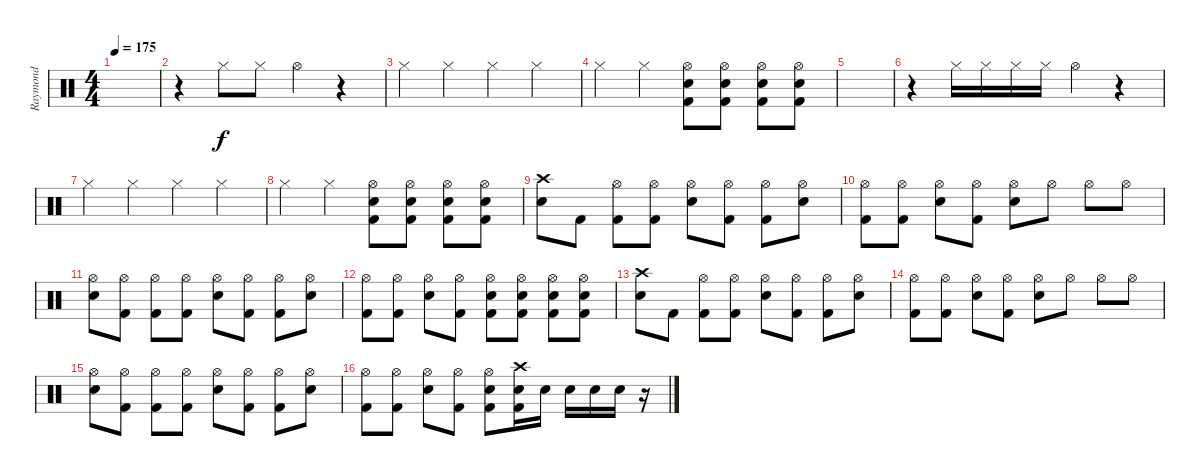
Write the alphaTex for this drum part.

\track ("Raymond" "Raymond") {instrument percussion}
\staff {score}
\articulation defaults
\ts (4 4)
\tempo 175
\clef neutral
\ks c
|
r.4 "Hi-Hat (closed)".8 "Hi-Hat (closed)".8 "Hi-Hat (open)".4 r.4 |
"Hi-Hat (closed)".4 "Hi-Hat (closed)".4 "Hi-Hat (closed)".4 "Hi-Hat (closed)".4 |
"Hi-Hat (closed)".4 "Hi-Hat (closed)".4 ("Hi-Hat (open)" "Electric Snare (hit)" "Kick (hit) 2").8 ("Hi-Hat (open)" "Electric Snare (hit)" "Kick (hit) 2").8 ("Hi-Hat (open)" "Electric Snare (hit)" "Kick (hit) 2").8 ("Hi-Hat (open)" "Electric Snare (hit)" "Kick (hit) 2").8 |
|
r.4 "Hi-Hat (closed)".16 "Hi-Hat (closed)".16 "Hi-Hat (closed)".16 "Hi-Hat (closed)".16 "Hi-Hat (open)".4 r.4 |
"Hi-Hat (closed)".4 "Hi-Hat (closed)".4 "Hi-Hat (closed)".4 "Hi-Hat (closed)".4 |
"Hi-Hat (closed)".4 "Hi-Hat (closed)".4 ("Hi-Hat (open)" "Electric Snare (hit)" "Kick (hit) 2").8 ("Hi-Hat (open)" "Electric Snare (hit)" "Kick (hit) 2").8 ("Hi-Hat (open)" "Electric Snare (hit)" "Kick (hit) 2").8 ("Hi-Hat (open)" "Electric Snare (hit)" "Kick (hit) 2").8 |
("Crash high (hit)" "Electric Snare (hit)").8 "Kick (hit) 2".8 ("Hi-Hat (open)" "Kick (hit) 2").8 ("Hi-Hat (open)" "Kick (hit) 2").8 ("Hi-Hat (open)" "Electric Snare (hit)").8 ("Hi-Hat (open)" "Kick (hit) 2").8 ("Hi-Hat (open)" "Kick (hit) 2").8 ("Hi-Hat (open)" "Electric Snare (hit)").8 |
("Hi-Hat (open)" "Kick (hit) 2").8 ("Hi-Hat (open)" "Kick (hit) 2").8 ("Hi-Hat (open)" "Electric Snare (hit)").8 ("Hi-Hat (open)" "Kick (hit) 2").8 ("Hi-Hat (open)" "Electric Snare (hit)").8 "Hi-Hat (open)".8 "Hi-Hat (open)".8 "Hi-Hat (open)".8 |
("Hi-Hat (open)" "Electric Snare (hit)").8 ("Hi-Hat (open)" "Kick (hit) 2").8 ("Hi-Hat (open)" "Kick (hit) 2").8 ("Hi-Hat (open)" "Kick (hit) 2").8 ("Hi-Hat (open)" "Electric Snare (hit)").8 ("Hi-Hat (open)" "Kick (hit) 2").8 ("Hi-Hat (open)" "Kick (hit) 2").8 ("Hi-Hat (open)" "Electric Snare (hit)").8 |
("Hi-Hat (open)" "Kick (hit) 2").8 ("Hi-Hat (open)" "Kick (hit) 2").8 ("Hi-Hat (open)" "Electric Snare (hit)").8 ("Hi-Hat (open)" "Kick (hit) 2").8 ("Hi-Hat (open)" "Electric Snare (hit)" "Kick (hit) 2").8 ("Hi-Hat (open)" "Electric Snare (hit)" "Kick (hit) 2").8 ("Hi-Hat (open)" "Electric Snare (hit)" "Kick (hit) 2").8 ("Hi-Hat (open)" "Electric Snare (hit)" "Kick (hit) 2").8 |
("Crash high (hit)" "Electric Snare (hit)").8 "Kick (hit) 2".8 ("Hi-Hat (open)" "Kick (hit) 2").8 ("Hi-Hat (open)" "Kick (hit) 2").8 ("Hi-Hat (open)" "Electric Snare (hit)").8 ("Hi-Hat (open)" "Kick (hit) 2").8 ("Hi-Hat (open)" "Kick (hit) 2").8 ("Hi-Hat (open)" "Electric Snare (hit)").8 |
("Hi-Hat (open)" "Kick (hit) 2").8 ("Hi-Hat (open)" "Kick (hit) 2").8 ("Hi-Hat (open)" "Electric Snare (hit)").8 ("Hi-Hat (open)" "Kick (hit) 2").8 ("Hi-Hat (open)" "Electric Snare (hit)").8 "Hi-Hat (open)".8 "Hi-Hat (open)".8 "Hi-Hat (open)".8 |
("Hi-Hat (open)" "Electric Snare (hit)").8 ("Hi-Hat (open)" "Kick (hit) 2").8 ("Hi-Hat (open)" "Kick (hit) 2").8 ("Hi-Hat (open)" "Kick (hit) 2").8 ("Hi-Hat (open)" "Electric Snare (hit)").8 ("Hi-Hat (open)" "Kick (hit) 2").8 ("Hi-Hat (open)" "Kick (hit) 2").8 ("Hi-Hat (open)" "Electric Snare (hit)").8 |
("Hi-Hat (open)" "Kick (hit) 2").8 ("Hi-Hat (open)" "Kick (hit) 2").8 ("Hi-Hat (open)" "Electric Snare (hit)").8 ("Hi-Hat (open)" "Kick (hit) 2").8 ("Hi-Hat (open)" "Electric Snare (hit)" "Kick (hit) 2").8 ("Crash high (hit)" "Electric Snare (hit)" "Kick (hit) 2").16 "Electric Snare (hit)".16 "Electric Snare (hit)".16 "Electric Snare (hit)".16 "Electric Snare (hit)".16 r.16
